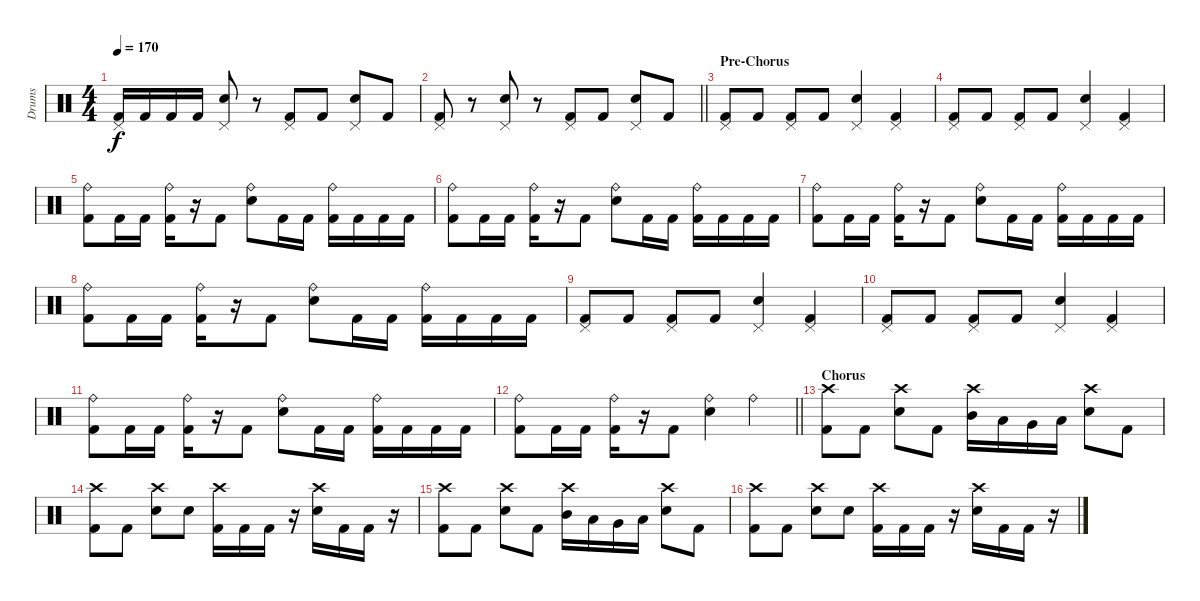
\track ("Drums" "Drums") {instrument percussion}
\staff {score}
\articulation defaults
\ts (4 4)
\tempo 170
\clef neutral
\ks c
("Pedal Hi-Hat (hit)" "Kick (hit) 2").16{dy f} "Kick (hit) 2".16 "Kick (hit) 2".16 "Kick (hit) 2".16 ("Pedal Hi-Hat (hit)" "Electric Snare (hit)").8 r.8 ("Pedal Hi-Hat (hit)" "Kick (hit) 2").8 "Kick (hit) 2".8 ("Pedal Hi-Hat (hit)" "Electric Snare (hit)").8 "Kick (hit) 2".8 |
\barLineRight lightlight
("Pedal Hi-Hat (hit)" "Kick (hit) 2").8 r.8 ("Pedal Hi-Hat (hit)" "Electric Snare (hit)").8 r.8 ("Pedal Hi-Hat (hit)" "Kick (hit) 2").8 "Kick (hit) 2".8 ("Pedal Hi-Hat (hit)" "Electric Snare (hit)").8 "Kick (hit) 2".8 |
\section ("" "Pre-Chorus")
("Pedal Hi-Hat (hit)" "Kick (hit) 2").8 "Kick (hit) 2".8 ("Pedal Hi-Hat (hit)" "Kick (hit) 2").8 "Kick (hit) 2".8 ("Pedal Hi-Hat (hit)" "Electric Snare (hit)").4 ("Pedal Hi-Hat (hit)" "Kick (hit) 2").4 |
("Pedal Hi-Hat (hit)" "Kick (hit) 2").8 "Kick (hit) 2".8 ("Pedal Hi-Hat (hit)" "Kick (hit) 2").8 "Kick (hit) 2".8 ("Pedal Hi-Hat (hit)" "Electric Snare (hit)").4 ("Pedal Hi-Hat (hit)" "Kick (hit) 2").4 |
("Ride (bell)" "Kick (hit) 2").8 "Kick (hit) 2".16 "Kick (hit) 2".16 ("Ride (bell)" "Kick (hit) 2").16 r.16 "Kick (hit) 2".8 ("Ride (bell)" "Electric Snare (hit)").8 "Kick (hit) 2".16 "Kick (hit) 2".16 ("Ride (bell)" "Kick (hit) 2").16 "Kick (hit) 2".16 "Kick (hit) 2".16 "Kick (hit) 2".16 |
("Ride (bell)" "Kick (hit) 2").8 "Kick (hit) 2".16 "Kick (hit) 2".16 ("Ride (bell)" "Kick (hit) 2").16 r.16 "Kick (hit) 2".8 ("Ride (bell)" "Electric Snare (hit)").8 "Kick (hit) 2".16 "Kick (hit) 2".16 ("Ride (bell)" "Kick (hit) 2").16 "Kick (hit) 2".16 "Kick (hit) 2".16 "Kick (hit) 2".16 |
("Ride (bell)" "Kick (hit) 2").8 "Kick (hit) 2".16 "Kick (hit) 2".16 ("Ride (bell)" "Kick (hit) 2").16 r.16 "Kick (hit) 2".8 ("Ride (bell)" "Electric Snare (hit)").8 "Kick (hit) 2".16 "Kick (hit) 2".16 ("Ride (bell)" "Kick (hit) 2").16 "Kick (hit) 2".16 "Kick (hit) 2".16 "Kick (hit) 2".16 |
("Ride (bell)" "Kick (hit) 2").8 "Kick (hit) 2".16 "Kick (hit) 2".16 ("Ride (bell)" "Kick (hit) 2").16 r.16 "Kick (hit) 2".8 ("Ride (bell)" "Electric Snare (hit)").8 "Kick (hit) 2".16 "Kick (hit) 2".16 ("Ride (bell)" "Kick (hit) 2").16 "Kick (hit) 2".16 "Kick (hit) 2".16 "Kick (hit) 2".16 |
("Pedal Hi-Hat (hit)" "Kick (hit) 2").8 "Kick (hit) 2".8 ("Pedal Hi-Hat (hit)" "Kick (hit) 2").8 "Kick (hit) 2".8 ("Pedal Hi-Hat (hit)" "Electric Snare (hit)").4 ("Pedal Hi-Hat (hit)" "Kick (hit) 2").4 |
("Pedal Hi-Hat (hit)" "Kick (hit) 2").8 "Kick (hit) 2".8 ("Pedal Hi-Hat (hit)" "Kick (hit) 2").8 "Kick (hit) 2".8 ("Pedal Hi-Hat (hit)" "Electric Snare (hit)").4 ("Pedal Hi-Hat (hit)" "Kick (hit) 2").4 |
("Ride (bell)" "Kick (hit) 2").8 "Kick (hit) 2".16 "Kick (hit) 2".16 ("Ride (bell)" "Kick (hit) 2").16 r.16 "Kick (hit) 2".8 ("Ride (bell)" "Electric Snare (hit)").8 "Kick (hit) 2".16 "Kick (hit) 2".16 ("Ride (bell)" "Kick (hit) 2").16 "Kick (hit) 2".16 "Kick (hit) 2".16 "Kick (hit) 2".16 |
\barLineRight lightlight
("Ride (bell)" "Kick (hit) 2").8 "Kick (hit) 2".16 "Kick (hit) 2".16 ("Ride (bell)" "Kick (hit) 2").16 r.16 "Kick (hit) 2".8 ("Ride (bell)" "Electric Snare (hit)").4 "Ride (bell)".4 |
\section ("" "Chorus")
("Crash high (hit)" "Kick (hit) 2").8 "Kick (hit) 2".8 ("Crash high (hit)" "Electric Snare (hit)").8 "Kick (hit) 2".8 ("Crash high (hit)" "Mid Tom (hit)").16 "Low Tom (hit)".16 "Very Low Tom (hit)".16 "Low Tom (hit)".16 ("Crash high (hit)" "Electric Snare (hit)").8 "Kick (hit) 2".8 |
("Crash high (hit)" "Kick (hit) 2").8 "Kick (hit) 2".8 ("Crash high (hit)" "Electric Snare (hit)").8 "Electric Snare (hit)".8 ("Crash high (hit)" "Kick (hit) 2").16 "Kick (hit) 2".16 "Kick (hit) 2".16 r.16 ("Crash high (hit)" "Electric Snare (hit)").16 "Kick (hit) 2".16 "Kick (hit) 2".16 r.16 |
("Crash high (hit)" "Kick (hit) 2").8 "Kick (hit) 2".8 ("Crash high (hit)" "Electric Snare (hit)").8 "Kick (hit) 2".8 ("Crash high (hit)" "Mid Tom (hit)").16 "Low Tom (hit)".16 "Very Low Tom (hit)".16 "Low Tom (hit)".16 ("Crash high (hit)" "Electric Snare (hit)").8 "Kick (hit) 2".8 |
("Crash high (hit)" "Kick (hit) 2").8 "Kick (hit) 2".8 ("Crash high (hit)" "Electric Snare (hit)").8 "Electric Snare (hit)".8 ("Crash high (hit)" "Kick (hit) 2").16 "Kick (hit) 2".16 "Kick (hit) 2".16 r.16 ("Crash high (hit)" "Electric Snare (hit)").16 "Kick (hit) 2".16 "Kick (hit) 2".16 r.16
